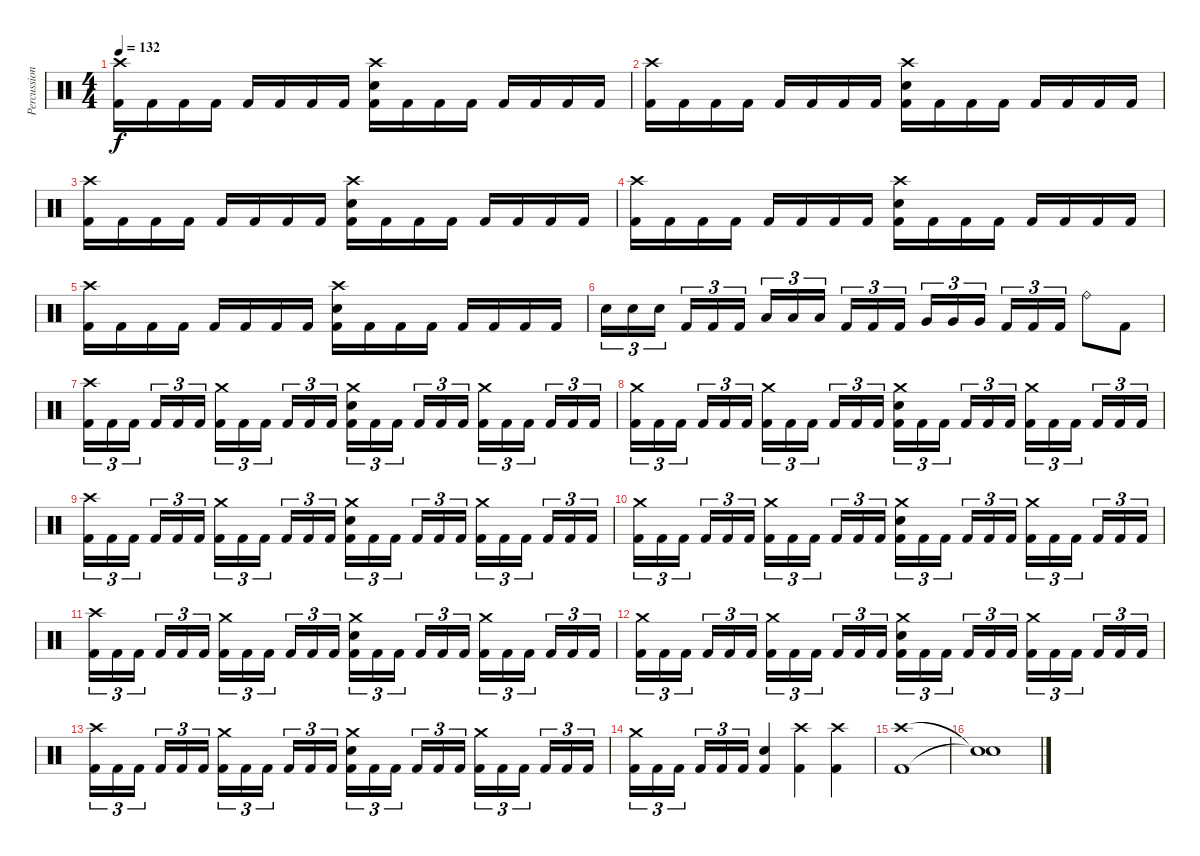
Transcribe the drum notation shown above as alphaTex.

\track ("Percussion" "Percussion") {instrument percussion}
\staff {score}
\articulation defaults
\ts (4 4)
\tempo 132
\clef neutral
\ks c
("Crash high (hit)" "Kick (hit) 2").16{dy f} "Kick (hit) 2".16 "Kick (hit) 2".16 "Kick (hit) 2".16 "Kick (hit) 2".16 "Kick (hit) 2".16 "Kick (hit) 2".16 "Kick (hit) 2".16 ("Crash high (hit)" "Electric Snare (hit)" "Kick (hit) 2").16 "Kick (hit) 2".16 "Kick (hit) 2".16 "Kick (hit) 2".16 "Kick (hit) 2".16 "Kick (hit) 2".16 "Kick (hit) 2".16 "Kick (hit) 2".16 |
("Crash high (hit)" "Kick (hit) 2").16 "Kick (hit) 2".16 "Kick (hit) 2".16 "Kick (hit) 2".16 "Kick (hit) 2".16 "Kick (hit) 2".16 "Kick (hit) 2".16 "Kick (hit) 2".16 ("Crash high (hit)" "Electric Snare (hit)" "Kick (hit) 2").16 "Kick (hit) 2".16 "Kick (hit) 2".16 "Kick (hit) 2".16 "Kick (hit) 2".16 "Kick (hit) 2".16 "Kick (hit) 2".16 "Kick (hit) 2".16 |
("Crash high (hit)" "Kick (hit) 2").16 "Kick (hit) 2".16 "Kick (hit) 2".16 "Kick (hit) 2".16 "Kick (hit) 2".16 "Kick (hit) 2".16 "Kick (hit) 2".16 "Kick (hit) 2".16 ("Crash high (hit)" "Electric Snare (hit)" "Kick (hit) 2").16 "Kick (hit) 2".16 "Kick (hit) 2".16 "Kick (hit) 2".16 "Kick (hit) 2".16 "Kick (hit) 2".16 "Kick (hit) 2".16 "Kick (hit) 2".16 |
("Crash high (hit)" "Kick (hit) 2").16 "Kick (hit) 2".16 "Kick (hit) 2".16 "Kick (hit) 2".16 "Kick (hit) 2".16 "Kick (hit) 2".16 "Kick (hit) 2".16 "Kick (hit) 2".16 ("Crash high (hit)" "Electric Snare (hit)" "Kick (hit) 2").16 "Kick (hit) 2".16 "Kick (hit) 2".16 "Kick (hit) 2".16 "Kick (hit) 2".16 "Kick (hit) 2".16 "Kick (hit) 2".16 "Kick (hit) 2".16 |
("Crash high (hit)" "Kick (hit) 2").16 "Kick (hit) 2".16 "Kick (hit) 2".16 "Kick (hit) 2".16 "Kick (hit) 2".16 "Kick (hit) 2".16 "Kick (hit) 2".16 "Kick (hit) 2".16 ("Crash high (hit)" "Electric Snare (hit)" "Kick (hit) 2").16 "Kick (hit) 2".16 "Kick (hit) 2".16 "Kick (hit) 2".16 "Kick (hit) 2".16 "Kick (hit) 2".16 "Kick (hit) 2".16 "Kick (hit) 2".16 |
"Electric Snare (hit)".16{tu (3 2)} "Electric Snare (hit)".16{tu (3 2)} "Electric Snare (hit)".16{tu (3 2) beam splitsecondary} "Kick (hit) 2".16{tu (3 2)} "Kick (hit) 2".16{tu (3 2)} "Kick (hit) 2".16{tu (3 2)} "Low Tom (hit)".16{tu (3 2)} "Low Tom (hit)".16{tu (3 2)} "Low Tom (hit)".16{tu (3 2) beam splitsecondary} "Kick (hit) 2".16{tu (3 2)} "Kick (hit) 2".16{tu (3 2)} "Kick (hit) 2".16{tu (3 2)} "Very Low Tom (hit)".16{tu (3 2)} "Very Low Tom (hit)".16{tu (3 2)} "Very Low Tom (hit)".16{tu (3 2) beam splitsecondary} "Kick (hit) 2".16{tu (3 2)} "Kick (hit) 2".16{tu (3 2)} "Kick (hit) 2".16{tu (3 2)} "Ride (bell)".8 "Kick (hit) 2".8 |
("Crash high (hit)" "Kick (hit) 2").16{tu (3 2)} "Kick (hit) 2".16{tu (3 2)} "Kick (hit) 2".16{tu (3 2) beam splitsecondary} "Kick (hit) 2".16{tu (3 2)} "Kick (hit) 2".16{tu (3 2)} "Kick (hit) 2".16{tu (3 2)} ("Crash medium (hit)" "Kick (hit) 2").16{tu (3 2)} "Kick (hit) 2".16{tu (3 2)} "Kick (hit) 2".16{tu (3 2) beam splitsecondary} "Kick (hit) 2".16{tu (3 2)} "Kick (hit) 2".16{tu (3 2)} "Kick (hit) 2".16{tu (3 2)} ("Crash medium (hit)" "Electric Snare (hit)" "Kick (hit) 2").16{tu (3 2)} "Kick (hit) 2".16{tu (3 2)} "Kick (hit) 2".16{tu (3 2) beam splitsecondary} "Kick (hit) 2".16{tu (3 2)} "Kick (hit) 2".16{tu (3 2)} "Kick (hit) 2".16{tu (3 2)} ("Crash medium (hit)" "Kick (hit) 2").16{tu (3 2)} "Kick (hit) 2".16{tu (3 2)} "Kick (hit) 2".16{tu (3 2) beam splitsecondary} "Kick (hit) 2".16{tu (3 2)} "Kick (hit) 2".16{tu (3 2)} "Kick (hit) 2".16{tu (3 2)} |
("Crash medium (hit)" "Kick (hit) 2").16{tu (3 2)} "Kick (hit) 2".16{tu (3 2)} "Kick (hit) 2".16{tu (3 2) beam splitsecondary} "Kick (hit) 2".16{tu (3 2)} "Kick (hit) 2".16{tu (3 2)} "Kick (hit) 2".16{tu (3 2)} ("Crash medium (hit)" "Kick (hit) 2").16{tu (3 2)} "Kick (hit) 2".16{tu (3 2)} "Kick (hit) 2".16{tu (3 2) beam splitsecondary} "Kick (hit) 2".16{tu (3 2)} "Kick (hit) 2".16{tu (3 2)} "Kick (hit) 2".16{tu (3 2)} ("Crash medium (hit)" "Electric Snare (hit)" "Kick (hit) 2").16{tu (3 2)} "Kick (hit) 2".16{tu (3 2)} "Kick (hit) 2".16{tu (3 2) beam splitsecondary} "Kick (hit) 2".16{tu (3 2)} "Kick (hit) 2".16{tu (3 2)} "Kick (hit) 2".16{tu (3 2)} ("Crash medium (hit)" "Kick (hit) 2").16{tu (3 2)} "Kick (hit) 2".16{tu (3 2)} "Kick (hit) 2".16{tu (3 2) beam splitsecondary} "Kick (hit) 2".16{tu (3 2)} "Kick (hit) 2".16{tu (3 2)} "Kick (hit) 2".16{tu (3 2)} |
("Crash high (hit)" "Kick (hit) 2").16{tu (3 2)} "Kick (hit) 2".16{tu (3 2)} "Kick (hit) 2".16{tu (3 2) beam splitsecondary} "Kick (hit) 2".16{tu (3 2)} "Kick (hit) 2".16{tu (3 2)} "Kick (hit) 2".16{tu (3 2)} ("Crash medium (hit)" "Kick (hit) 2").16{tu (3 2)} "Kick (hit) 2".16{tu (3 2)} "Kick (hit) 2".16{tu (3 2) beam splitsecondary} "Kick (hit) 2".16{tu (3 2)} "Kick (hit) 2".16{tu (3 2)} "Kick (hit) 2".16{tu (3 2)} ("Crash medium (hit)" "Electric Snare (hit)" "Kick (hit) 2").16{tu (3 2)} "Kick (hit) 2".16{tu (3 2)} "Kick (hit) 2".16{tu (3 2) beam splitsecondary} "Kick (hit) 2".16{tu (3 2)} "Kick (hit) 2".16{tu (3 2)} "Kick (hit) 2".16{tu (3 2)} ("Crash medium (hit)" "Kick (hit) 2").16{tu (3 2)} "Kick (hit) 2".16{tu (3 2)} "Kick (hit) 2".16{tu (3 2) beam splitsecondary} "Kick (hit) 2".16{tu (3 2)} "Kick (hit) 2".16{tu (3 2)} "Kick (hit) 2".16{tu (3 2)} |
("Crash medium (hit)" "Kick (hit) 2").16{tu (3 2)} "Kick (hit) 2".16{tu (3 2)} "Kick (hit) 2".16{tu (3 2) beam splitsecondary} "Kick (hit) 2".16{tu (3 2)} "Kick (hit) 2".16{tu (3 2)} "Kick (hit) 2".16{tu (3 2)} ("Crash medium (hit)" "Kick (hit) 2").16{tu (3 2)} "Kick (hit) 2".16{tu (3 2)} "Kick (hit) 2".16{tu (3 2) beam splitsecondary} "Kick (hit) 2".16{tu (3 2)} "Kick (hit) 2".16{tu (3 2)} "Kick (hit) 2".16{tu (3 2)} ("Crash medium (hit)" "Electric Snare (hit)" "Kick (hit) 2").16{tu (3 2)} "Kick (hit) 2".16{tu (3 2)} "Kick (hit) 2".16{tu (3 2) beam splitsecondary} "Kick (hit) 2".16{tu (3 2)} "Kick (hit) 2".16{tu (3 2)} "Kick (hit) 2".16{tu (3 2)} ("Crash medium (hit)" "Kick (hit) 2").16{tu (3 2)} "Kick (hit) 2".16{tu (3 2)} "Kick (hit) 2".16{tu (3 2) beam splitsecondary} "Kick (hit) 2".16{tu (3 2)} "Kick (hit) 2".16{tu (3 2)} "Kick (hit) 2".16{tu (3 2)} |
("Crash high (hit)" "Kick (hit) 2").16{tu (3 2)} "Kick (hit) 2".16{tu (3 2)} "Kick (hit) 2".16{tu (3 2) beam splitsecondary} "Kick (hit) 2".16{tu (3 2)} "Kick (hit) 2".16{tu (3 2)} "Kick (hit) 2".16{tu (3 2)} ("Crash medium (hit)" "Kick (hit) 2").16{tu (3 2)} "Kick (hit) 2".16{tu (3 2)} "Kick (hit) 2".16{tu (3 2) beam splitsecondary} "Kick (hit) 2".16{tu (3 2)} "Kick (hit) 2".16{tu (3 2)} "Kick (hit) 2".16{tu (3 2)} ("Crash medium (hit)" "Electric Snare (hit)" "Kick (hit) 2").16{tu (3 2)} "Kick (hit) 2".16{tu (3 2)} "Kick (hit) 2".16{tu (3 2) beam splitsecondary} "Kick (hit) 2".16{tu (3 2)} "Kick (hit) 2".16{tu (3 2)} "Kick (hit) 2".16{tu (3 2)} ("Crash medium (hit)" "Kick (hit) 2").16{tu (3 2)} "Kick (hit) 2".16{tu (3 2)} "Kick (hit) 2".16{tu (3 2) beam splitsecondary} "Kick (hit) 2".16{tu (3 2)} "Kick (hit) 2".16{tu (3 2)} "Kick (hit) 2".16{tu (3 2)} |
("Crash medium (hit)" "Kick (hit) 2").16{tu (3 2)} "Kick (hit) 2".16{tu (3 2)} "Kick (hit) 2".16{tu (3 2) beam splitsecondary} "Kick (hit) 2".16{tu (3 2)} "Kick (hit) 2".16{tu (3 2)} "Kick (hit) 2".16{tu (3 2)} ("Crash medium (hit)" "Kick (hit) 2").16{tu (3 2)} "Kick (hit) 2".16{tu (3 2)} "Kick (hit) 2".16{tu (3 2) beam splitsecondary} "Kick (hit) 2".16{tu (3 2)} "Kick (hit) 2".16{tu (3 2)} "Kick (hit) 2".16{tu (3 2)} ("Crash medium (hit)" "Electric Snare (hit)" "Kick (hit) 2").16{tu (3 2)} "Kick (hit) 2".16{tu (3 2)} "Kick (hit) 2".16{tu (3 2) beam splitsecondary} "Kick (hit) 2".16{tu (3 2)} "Kick (hit) 2".16{tu (3 2)} "Kick (hit) 2".16{tu (3 2)} ("Crash medium (hit)" "Kick (hit) 2").16{tu (3 2)} "Kick (hit) 2".16{tu (3 2)} "Kick (hit) 2".16{tu (3 2) beam splitsecondary} "Kick (hit) 2".16{tu (3 2)} "Kick (hit) 2".16{tu (3 2)} "Kick (hit) 2".16{tu (3 2)} |
("Crash high (hit)" "Kick (hit) 2").16{tu (3 2)} "Kick (hit) 2".16{tu (3 2)} "Kick (hit) 2".16{tu (3 2) beam splitsecondary} "Kick (hit) 2".16{tu (3 2)} "Kick (hit) 2".16{tu (3 2)} "Kick (hit) 2".16{tu (3 2)} ("Crash medium (hit)" "Kick (hit) 2").16{tu (3 2)} "Kick (hit) 2".16{tu (3 2)} "Kick (hit) 2".16{tu (3 2) beam splitsecondary} "Kick (hit) 2".16{tu (3 2)} "Kick (hit) 2".16{tu (3 2)} "Kick (hit) 2".16{tu (3 2)} ("Crash medium (hit)" "Electric Snare (hit)" "Kick (hit) 2").16{tu (3 2)} "Kick (hit) 2".16{tu (3 2)} "Kick (hit) 2".16{tu (3 2) beam splitsecondary} "Kick (hit) 2".16{tu (3 2)} "Kick (hit) 2".16{tu (3 2)} "Kick (hit) 2".16{tu (3 2)} ("Crash medium (hit)" "Kick (hit) 2").16{tu (3 2)} "Kick (hit) 2".16{tu (3 2)} "Kick (hit) 2".16{tu (3 2) beam splitsecondary} "Kick (hit) 2".16{tu (3 2)} "Kick (hit) 2".16{tu (3 2)} "Kick (hit) 2".16{tu (3 2)} |
("Crash medium (hit)" "Kick (hit) 2").16{tu (3 2)} "Kick (hit) 2".16{tu (3 2)} "Kick (hit) 2".16{tu (3 2) beam splitsecondary} "Kick (hit) 2".16{tu (3 2)} "Kick (hit) 2".16{tu (3 2)} "Kick (hit) 2".16{tu (3 2)} ("Electric Snare (hit)" "Kick (hit) 2").4 ("Crash high (hit)" "Kick (hit) 2").4 ("Crash high (hit)" "Kick (hit) 2").4 |
("Crash high (hit)" "Kick (hit) 2").1 |
("Snare (hit)"{t} "Snare (hit)"{t}).1
